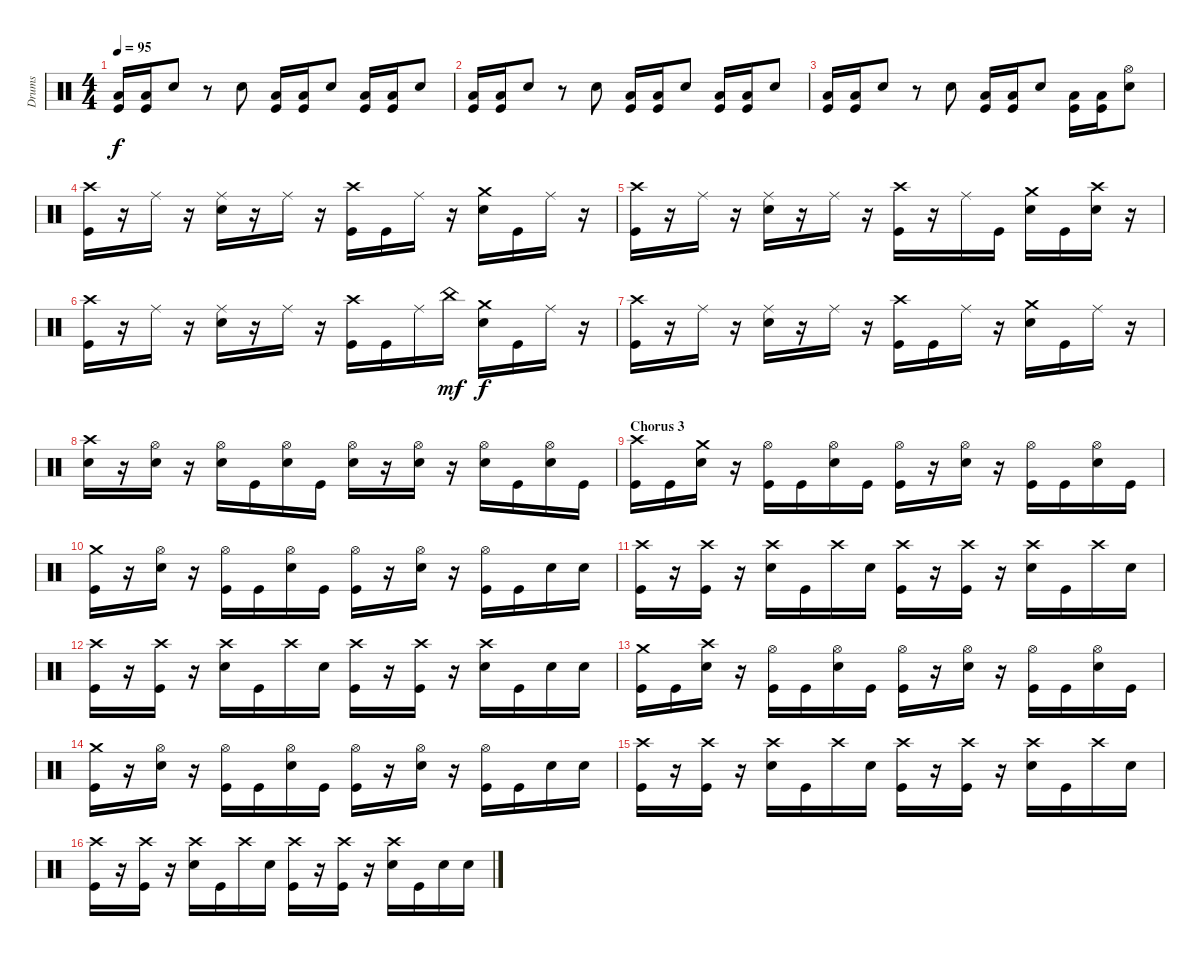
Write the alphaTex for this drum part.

\track ("Drums" "Drums") {instrument percussion}
\staff {score}
\articulation defaults
\ts (4 4)
\tempo 95
\clef neutral
\ks c
("Kick (hit)" "Low Floor Tom (hit)").16{dy f volume 16} ("Kick (hit)" "Low Floor Tom (hit)").16 "Electric Snare (hit)".8 r.8 "Electric Snare (hit)".8 ("Kick (hit)" "Low Floor Tom (hit)").16 ("Kick (hit)" "Low Floor Tom (hit)").16 "Electric Snare (hit)".8 ("Kick (hit)" "Low Floor Tom (hit)").16 ("Kick (hit)" "Low Floor Tom (hit)").16 "Electric Snare (hit)".8 |
("Kick (hit)" "Low Floor Tom (hit)").16{volume 16} ("Kick (hit)" "Low Floor Tom (hit)").16 "Electric Snare (hit)".8 r.8 "Electric Snare (hit)".8 ("Kick (hit)" "Low Floor Tom (hit)").16 ("Kick (hit)" "Low Floor Tom (hit)").16 "Electric Snare (hit)".8 ("Kick (hit)" "Low Floor Tom (hit)").16 ("Kick (hit)" "Low Floor Tom (hit)").16 "Electric Snare (hit)".8 |
("Kick (hit)" "Low Floor Tom (hit)").16{volume 16} ("Kick (hit)" "Low Floor Tom (hit)").16 "Electric Snare (hit)".8 r.8 "Electric Snare (hit)".8 ("Kick (hit)" "Low Floor Tom (hit)").16 ("Kick (hit)" "Low Floor Tom (hit)").16 "Electric Snare (hit)".8 ("Kick (hit)" "Low Floor Tom (hit)").16 ("Kick (hit)" "Low Floor Tom (hit)").16 ("Hi-Hat (open)" "Electric Snare (hit)").8 |
("Crash high (hit)" "Kick (hit)").16 r.16 "Ride (middle)".16 r.16 ("Ride (middle)" "Electric Snare (hit)").16 r.16 "Ride (middle)".16 r.16 ("Crash high (hit)" "Kick (hit)").16 "Kick (hit)".16 "Ride (middle)".16 r.16 ("Crash medium (hit)" "Electric Snare (hit)").16 "Kick (hit)".16 "Ride (middle)".16 r.16 |
("Crash high (hit)" "Kick (hit)").16 r.16 "Ride (middle)".16 r.16 ("Ride (middle)" "Electric Snare (hit)").16 r.16 "Ride (middle)".16 r.16 ("Crash high (hit)" "Kick (hit)").16 r.16 "Ride (middle)".16 "Kick (hit)".16 ("Crash medium (hit)" "Electric Snare (hit)").16 "Kick (hit)".16 ("Crash high (hit)" "Electric Snare (hit)").16 r.16 |
("Crash high (hit)" "Kick (hit)").16 r.16 "Ride (middle)".16 r.16 ("Ride (middle)" "Electric Snare (hit)").16 r.16 "Ride (middle)".16 r.16 ("Crash high (hit)" "Kick (hit)").16 "Kick (hit)".16 "Ride (middle)".16 "China (hit)".16{dy mf} ("Crash medium (hit)" "Electric Snare (hit)").16{dy f} "Kick (hit)".16 "Ride (middle)".16 r.16 |
("Crash high (hit)" "Kick (hit)").16 r.16 "Ride (middle)".16 r.16 ("Ride (middle)" "Electric Snare (hit)").16 r.16 "Ride (middle)".16 r.16 ("Crash high (hit)" "Kick (hit)").16 "Kick (hit)".16 "Ride (middle)".16 r.16 ("Crash medium (hit)" "Electric Snare (hit)").16 "Kick (hit)".16 "Ride (middle)".16 r.16 |
("Crash high (hit)" "Electric Snare (hit)").16 r.16 ("Hi-Hat (open)" "Electric Snare (hit)").16 r.16 ("Hi-Hat (open)" "Electric Snare (hit)").16 "Kick (hit)".16 ("Hi-Hat (open)" "Electric Snare (hit)").16 "Kick (hit)".16 ("Hi-Hat (open)" "Electric Snare (hit)").16 r.16 ("Hi-Hat (open)" "Electric Snare (hit)").16 r.16 ("Hi-Hat (open)" "Electric Snare (hit)").16 "Kick (hit)".16 ("Hi-Hat (open)" "Electric Snare (hit)").16 "Kick (hit)".16 |
\section ("" "Chorus 3")
("Crash high (hit)" "Kick (hit)").16 "Kick (hit)".16 ("Crash medium (hit)" "Electric Snare (hit)").16 r.16 ("Hi-Hat (open)" "Kick (hit)").16 "Kick (hit)".16 ("Hi-Hat (open)" "Electric Snare (hit)").16 "Kick (hit)".16 ("Hi-Hat (open)" "Kick (hit)").16 r.16 ("Hi-Hat (open)" "Electric Snare (hit)").16 r.16 ("Hi-Hat (open)" "Kick (hit)").16 "Kick (hit)".16 ("Hi-Hat (open)" "Electric Snare (hit)").16 "Kick (hit)".16 |
("Crash medium (hit)" "Kick (hit)").16 r.16 ("Hi-Hat (open)" "Electric Snare (hit)").16 r.16 ("Hi-Hat (open)" "Kick (hit)").16 "Kick (hit)".16 ("Hi-Hat (open)" "Electric Snare (hit)").16 "Kick (hit)".16 ("Hi-Hat (open)" "Kick (hit)").16 r.16 ("Hi-Hat (open)" "Electric Snare (hit)").16 r.16 ("Hi-Hat (open)" "Kick (hit)").16 "Kick (hit)".16 "Electric Snare (hit)".16 "Electric Snare (hit)".16 |
("Crash high (hit)" "Kick (hit)").16 r.16 ("Crash high (hit)" "Kick (hit)").16 r.16 ("Crash high (hit)" "Electric Snare (hit)").16 "Kick (hit)".16 "Crash high (hit)".16 "Electric Snare (hit)".16 ("Crash high (hit)" "Kick (hit)").16 r.16 ("Crash high (hit)" "Kick (hit)").16 r.16 ("Crash high (hit)" "Electric Snare (hit)").16 "Kick (hit)".16 "Crash high (hit)".16 "Electric Snare (hit)".16 |
("Crash high (hit)" "Kick (hit)").16 r.16 ("Crash high (hit)" "Kick (hit)").16 r.16 ("Crash high (hit)" "Electric Snare (hit)").16 "Kick (hit)".16 "Crash high (hit)".16 "Electric Snare (hit)".16 ("Crash high (hit)" "Kick (hit)").16 r.16 ("Crash high (hit)" "Kick (hit)").16 r.16 ("Crash high (hit)" "Electric Snare (hit)").16 "Kick (hit)".16 "Electric Snare (hit)".16 "Electric Snare (hit)".16 |
("Crash medium (hit)" "Kick (hit)").16 "Kick (hit)".16 ("Crash high (hit)" "Electric Snare (hit)").16 r.16 ("Hi-Hat (open)" "Kick (hit)").16 "Kick (hit)".16 ("Hi-Hat (open)" "Electric Snare (hit)").16 "Kick (hit)".16 ("Hi-Hat (open)" "Kick (hit)").16 r.16 ("Hi-Hat (open)" "Electric Snare (hit)").16 r.16 ("Hi-Hat (open)" "Kick (hit)").16 "Kick (hit)".16 ("Hi-Hat (open)" "Electric Snare (hit)").16 "Kick (hit)".16 |
("Crash medium (hit)" "Kick (hit)").16 r.16 ("Hi-Hat (open)" "Electric Snare (hit)").16 r.16 ("Hi-Hat (open)" "Kick (hit)").16 "Kick (hit)".16 ("Hi-Hat (open)" "Electric Snare (hit)").16 "Kick (hit)".16 ("Hi-Hat (open)" "Kick (hit)").16 r.16 ("Hi-Hat (open)" "Electric Snare (hit)").16 r.16 ("Hi-Hat (open)" "Kick (hit)").16 "Kick (hit)".16 "Electric Snare (hit)".16 "Electric Snare (hit)".16 |
("Crash high (hit)" "Kick (hit)").16 r.16 ("Crash high (hit)" "Kick (hit)").16 r.16 ("Crash high (hit)" "Electric Snare (hit)").16 "Kick (hit)".16 "Crash high (hit)".16 "Electric Snare (hit)".16 ("Crash high (hit)" "Kick (hit)").16 r.16 ("Crash high (hit)" "Kick (hit)").16 r.16 ("Crash high (hit)" "Electric Snare (hit)").16 "Kick (hit)".16 "Crash high (hit)".16 "Electric Snare (hit)".16 |
("Crash high (hit)" "Kick (hit)").16 r.16 ("Crash high (hit)" "Kick (hit)").16 r.16 ("Crash high (hit)" "Electric Snare (hit)").16 "Kick (hit)".16 "Crash high (hit)".16 "Electric Snare (hit)".16 ("Crash high (hit)" "Kick (hit)").16 r.16 ("Crash high (hit)" "Kick (hit)").16 r.16 ("Crash high (hit)" "Electric Snare (hit)").16 "Kick (hit)".16 "Electric Snare (hit)".16 "Electric Snare (hit)".16
